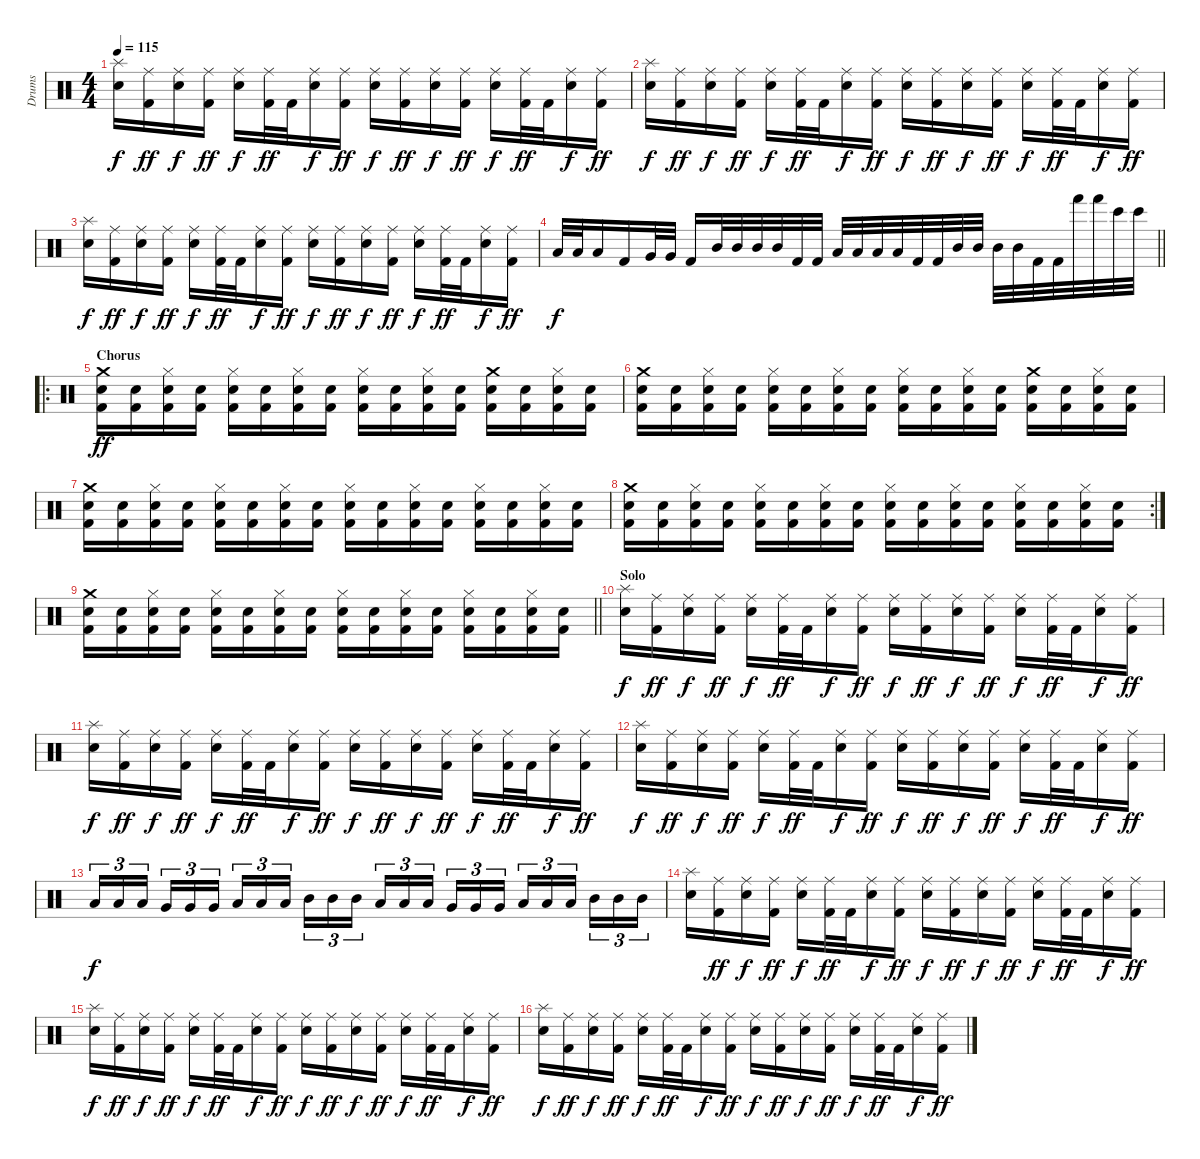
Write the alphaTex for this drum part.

\track ("Drums" "Drums") {instrument percussion}
\staff {score}
\articulation defaults
\ts (4 4)
\tempo 115
\clef neutral
\ks c
("Splash (hit)" "Electric Snare (hit)").16{dy f} ("Ride (middle)" "Kick (hit) 2").16{dy ff} ("Ride (middle)" "Electric Snare (hit)").16{dy f} ("Ride (middle)" "Kick (hit) 2").16{dy ff} ("Ride (middle)" "Electric Snare (hit)").16{dy f} ("Ride (middle)" "Kick (hit) 2").32{dy ff} "Kick (hit) 2".32 ("Ride (middle)" "Electric Snare (hit)").16{dy f} ("Ride (middle)" "Kick (hit) 2").16{dy ff} ("Ride (middle)" "Electric Snare (hit)").16{dy f} ("Ride (middle)" "Kick (hit) 2").16{dy ff} ("Ride (middle)" "Electric Snare (hit)").16{dy f} ("Ride (middle)" "Kick (hit) 2").16{dy ff} ("Ride (middle)" "Electric Snare (hit)").16{dy f} ("Ride (middle)" "Kick (hit) 2").32{dy ff} "Kick (hit) 2".32 ("Ride (middle)" "Electric Snare (hit)").16{dy f} ("Ride (middle)" "Kick (hit) 2").16{dy ff} |
("Splash (hit)" "Electric Snare (hit)").16{dy f} ("Ride (middle)" "Kick (hit) 2").16{dy ff} ("Ride (middle)" "Electric Snare (hit)").16{dy f} ("Ride (middle)" "Kick (hit) 2").16{dy ff} ("Ride (middle)" "Electric Snare (hit)").16{dy f} ("Ride (middle)" "Kick (hit) 2").32{dy ff} "Kick (hit) 2".32 ("Ride (middle)" "Electric Snare (hit)").16{dy f} ("Ride (middle)" "Kick (hit) 2").16{dy ff} ("Ride (middle)" "Electric Snare (hit)").16{dy f} ("Ride (middle)" "Kick (hit) 2").16{dy ff} ("Ride (middle)" "Electric Snare (hit)").16{dy f} ("Ride (middle)" "Kick (hit) 2").16{dy ff} ("Ride (middle)" "Electric Snare (hit)").16{dy f} ("Ride (middle)" "Kick (hit) 2").32{dy ff} "Kick (hit) 2".32 ("Ride (middle)" "Electric Snare (hit)").16{dy f} ("Ride (middle)" "Kick (hit) 2").16{dy ff} |
("Splash (hit)" "Electric Snare (hit)").16{dy f} ("Ride (middle)" "Kick (hit) 2").16{dy ff} ("Ride (middle)" "Electric Snare (hit)").16{dy f} ("Ride (middle)" "Kick (hit) 2").16{dy ff} ("Ride (middle)" "Electric Snare (hit)").16{dy f} ("Ride (middle)" "Kick (hit) 2").32{dy ff} "Kick (hit) 2".32 ("Ride (middle)" "Electric Snare (hit)").16{dy f} ("Ride (middle)" "Kick (hit) 2").16{dy ff} ("Ride (middle)" "Electric Snare (hit)").16{dy f} ("Ride (middle)" "Kick (hit) 2").16{dy ff} ("Ride (middle)" "Electric Snare (hit)").16{dy f} ("Ride (middle)" "Kick (hit) 2").16{dy ff} ("Ride (middle)" "Electric Snare (hit)").16{dy f} ("Ride (middle)" "Kick (hit) 2").32{dy ff} "Kick (hit) 2".32 ("Ride (middle)" "Electric Snare (hit)").16{dy f} ("Ride (middle)" "Kick (hit) 2").16{dy ff} |
\barLineRight lightlight "Low Floor Tom (hit)".32{dy f} "Low Floor Tom (hit)".32 "Low Floor Tom (hit)".16 "Kick (hit) 2".16 "Very Low Tom (hit)".32 "Very Low Tom (hit)".32 "Kick (hit) 2".16 "Mid Tom (hit)".32 "Mid Tom (hit)".32 "Mid Tom (hit)".32 "Mid Tom (hit)".32 "Kick (hit) 2".32 "Kick (hit) 2".32 "Low Tom (hit)".32 "Low Tom (hit)".32 "Low Tom (hit)".32 "Low Tom (hit)".32 "Kick (hit) 2".32 "Kick (hit) 2".32 "Mid Tom (hit)".32 "Mid Tom (hit)".32 "Mid Tom (hit)".32 "Mid Tom (hit)".32 "Kick (hit) 2".32 "Kick (hit) 2".32 "Hand (hit)".32 "Hand (hit)".32 "Bongo High (hit)".32 "Bongo High (hit)".32
|
\ro
\section ("" "Chorus")
("Crash medium (hit)" "Electric Snare (hit)" "Kick (hit) 2").16{dy ff} ("Electric Snare (hit)" "Kick (hit) 2").16 ("Hi-Hat (closed)" "Electric Snare (hit)" "Kick (hit) 2").16 ("Electric Snare (hit)" "Kick (hit) 2").16 ("Hi-Hat (closed)" "Electric Snare (hit)" "Kick (hit) 2").16 ("Electric Snare (hit)" "Kick (hit) 2").16 ("Hi-Hat (closed)" "Electric Snare (hit)" "Kick (hit) 2").16 ("Electric Snare (hit)" "Kick (hit) 2").16 ("Hi-Hat (closed)" "Electric Snare (hit)" "Kick (hit) 2").16 ("Electric Snare (hit)" "Kick (hit) 2").16 ("Hi-Hat (closed)" "Electric Snare (hit)" "Kick (hit) 2").16 ("Electric Snare (hit)" "Kick (hit) 2").16 ("Crash medium (hit)" "Electric Snare (hit)" "Kick (hit) 2").16 ("Electric Snare (hit)" "Kick (hit) 2").16 ("Hi-Hat (closed)" "Electric Snare (hit)" "Kick (hit) 2").16 ("Electric Snare (hit)" "Kick (hit) 2").16 |
("Crash medium (hit)" "Electric Snare (hit)" "Kick (hit) 2").16 ("Electric Snare (hit)" "Kick (hit) 2").16 ("Hi-Hat (closed)" "Electric Snare (hit)" "Kick (hit) 2").16 ("Electric Snare (hit)" "Kick (hit) 2").16 ("Hi-Hat (closed)" "Electric Snare (hit)" "Kick (hit) 2").16 ("Electric Snare (hit)" "Kick (hit) 2").16 ("Hi-Hat (closed)" "Electric Snare (hit)" "Kick (hit) 2").16 ("Electric Snare (hit)" "Kick (hit) 2").16 ("Hi-Hat (closed)" "Electric Snare (hit)" "Kick (hit) 2").16 ("Electric Snare (hit)" "Kick (hit) 2").16 ("Hi-Hat (closed)" "Electric Snare (hit)" "Kick (hit) 2").16 ("Electric Snare (hit)" "Kick (hit) 2").16 ("Crash medium (hit)" "Electric Snare (hit)" "Kick (hit) 2").16 ("Electric Snare (hit)" "Kick (hit) 2").16 ("Hi-Hat (closed)" "Electric Snare (hit)" "Kick (hit) 2").16 ("Electric Snare (hit)" "Kick (hit) 2").16 |
("Crash medium (hit)" "Electric Snare (hit)" "Kick (hit) 2").16 ("Electric Snare (hit)" "Kick (hit) 2").16 ("Hi-Hat (closed)" "Electric Snare (hit)" "Kick (hit) 2").16 ("Electric Snare (hit)" "Kick (hit) 2").16 ("Hi-Hat (closed)" "Electric Snare (hit)" "Kick (hit) 2").16 ("Electric Snare (hit)" "Kick (hit) 2").16 ("Hi-Hat (closed)" "Electric Snare (hit)" "Kick (hit) 2").16 ("Electric Snare (hit)" "Kick (hit) 2").16 ("Hi-Hat (closed)" "Electric Snare (hit)" "Kick (hit) 2").16 ("Electric Snare (hit)" "Kick (hit) 2").16 ("Hi-Hat (closed)" "Electric Snare (hit)" "Kick (hit) 2").16 ("Electric Snare (hit)" "Kick (hit) 2").16 ("Hi-Hat (closed)" "Electric Snare (hit)" "Kick (hit) 2").16 ("Electric Snare (hit)" "Kick (hit) 2").16 ("Hi-Hat (closed)" "Electric Snare (hit)" "Kick (hit) 2").16 ("Electric Snare (hit)" "Kick (hit) 2").16 |
\rc 2
("Crash medium (hit)" "Electric Snare (hit)" "Kick (hit) 2").16 ("Electric Snare (hit)" "Kick (hit) 2").16 ("Hi-Hat (closed)" "Electric Snare (hit)" "Kick (hit) 2").16 ("Electric Snare (hit)" "Kick (hit) 2").16 ("Hi-Hat (closed)" "Electric Snare (hit)" "Kick (hit) 2").16 ("Electric Snare (hit)" "Kick (hit) 2").16 ("Hi-Hat (closed)" "Electric Snare (hit)" "Kick (hit) 2").16 ("Electric Snare (hit)" "Kick (hit) 2").16 ("Hi-Hat (closed)" "Electric Snare (hit)" "Kick (hit) 2").16 ("Electric Snare (hit)" "Kick (hit) 2").16 ("Hi-Hat (closed)" "Electric Snare (hit)" "Kick (hit) 2").16 ("Electric Snare (hit)" "Kick (hit) 2").16 ("Hi-Hat (closed)" "Electric Snare (hit)" "Kick (hit) 2").16 ("Electric Snare (hit)" "Kick (hit) 2").16 ("Hi-Hat (closed)" "Electric Snare (hit)" "Kick (hit) 2").16 ("Electric Snare (hit)" "Kick (hit) 2").16 |
\barLineRight lightlight
("Crash medium (hit)" "Electric Snare (hit)" "Kick (hit) 2").16 ("Electric Snare (hit)" "Kick (hit) 2").16 ("Hi-Hat (closed)" "Electric Snare (hit)" "Kick (hit) 2").16 ("Electric Snare (hit)" "Kick (hit) 2").16 ("Hi-Hat (closed)" "Electric Snare (hit)" "Kick (hit) 2").16 ("Electric Snare (hit)" "Kick (hit) 2").16 ("Hi-Hat (closed)" "Electric Snare (hit)" "Kick (hit) 2").16 ("Electric Snare (hit)" "Kick (hit) 2").16 ("Hi-Hat (closed)" "Electric Snare (hit)" "Kick (hit) 2").16 ("Electric Snare (hit)" "Kick (hit) 2").16 ("Hi-Hat (closed)" "Electric Snare (hit)" "Kick (hit) 2").16 ("Electric Snare (hit)" "Kick (hit) 2").16 ("Hi-Hat (closed)" "Electric Snare (hit)" "Kick (hit) 2").16 ("Electric Snare (hit)" "Kick (hit) 2").16 ("Hi-Hat (closed)" "Electric Snare (hit)" "Kick (hit) 2").16 ("Electric Snare (hit)" "Kick (hit) 2").16 |
\section ("" "Solo")
("Splash (hit)" "Electric Snare (hit)").16{dy f} ("Ride (middle)" "Kick (hit) 2").16{dy ff} ("Ride (middle)" "Electric Snare (hit)").16{dy f} ("Ride (middle)" "Kick (hit) 2").16{dy ff} ("Ride (middle)" "Electric Snare (hit)").16{dy f} ("Ride (middle)" "Kick (hit) 2").32{dy ff} "Kick (hit) 2".32 ("Ride (middle)" "Electric Snare (hit)").16{dy f} ("Ride (middle)" "Kick (hit) 2").16{dy ff} ("Ride (middle)" "Electric Snare (hit)").16{dy f} ("Ride (middle)" "Kick (hit) 2").16{dy ff} ("Ride (middle)" "Electric Snare (hit)").16{dy f} ("Ride (middle)" "Kick (hit) 2").16{dy ff} ("Ride (middle)" "Electric Snare (hit)").16{dy f} ("Ride (middle)" "Kick (hit) 2").32{dy ff} "Kick (hit) 2".32 ("Ride (middle)" "Electric Snare (hit)").16{dy f} ("Ride (middle)" "Kick (hit) 2").16{dy ff} |
("Splash (hit)" "Electric Snare (hit)").16{dy f} ("Ride (middle)" "Kick (hit) 2").16{dy ff} ("Ride (middle)" "Electric Snare (hit)").16{dy f} ("Ride (middle)" "Kick (hit) 2").16{dy ff} ("Ride (middle)" "Electric Snare (hit)").16{dy f} ("Ride (middle)" "Kick (hit) 2").32{dy ff} "Kick (hit) 2".32 ("Ride (middle)" "Electric Snare (hit)").16{dy f} ("Ride (middle)" "Kick (hit) 2").16{dy ff} ("Ride (middle)" "Electric Snare (hit)").16{dy f} ("Ride (middle)" "Kick (hit) 2").16{dy ff} ("Ride (middle)" "Electric Snare (hit)").16{dy f} ("Ride (middle)" "Kick (hit) 2").16{dy ff} ("Ride (middle)" "Electric Snare (hit)").16{dy f} ("Ride (middle)" "Kick (hit) 2").32{dy ff} "Kick (hit) 2".32 ("Ride (middle)" "Electric Snare (hit)").16{dy f} ("Ride (middle)" "Kick (hit) 2").16{dy ff} |
("Splash (hit)" "Electric Snare (hit)").16{dy f} ("Ride (middle)" "Kick (hit) 2").16{dy ff} ("Ride (middle)" "Electric Snare (hit)").16{dy f} ("Ride (middle)" "Kick (hit) 2").16{dy ff} ("Ride (middle)" "Electric Snare (hit)").16{dy f} ("Ride (middle)" "Kick (hit) 2").32{dy ff} "Kick (hit) 2".32 ("Ride (middle)" "Electric Snare (hit)").16{dy f} ("Ride (middle)" "Kick (hit) 2").16{dy ff} ("Ride (middle)" "Electric Snare (hit)").16{dy f} ("Ride (middle)" "Kick (hit) 2").16{dy ff} ("Ride (middle)" "Electric Snare (hit)").16{dy f} ("Ride (middle)" "Kick (hit) 2").16{dy ff} ("Ride (middle)" "Electric Snare (hit)").16{dy f} ("Ride (middle)" "Kick (hit) 2").32{dy ff} "Kick (hit) 2".32 ("Ride (middle)" "Electric Snare (hit)").16{dy f} ("Ride (middle)" "Kick (hit) 2").16{dy ff} |
"Low Floor Tom (hit)".16{tu (3 2) dy f} "Low Floor Tom (hit)".16{tu (3 2)} "Low Floor Tom (hit)".16{tu (3 2)} "Very Low Tom (hit)".16{tu (3 2)} "Very Low Tom (hit)".16{tu (3 2)} "Very Low Tom (hit)".16{tu (3 2)} "Low Tom (hit)".16{tu (3 2)} "Low Tom (hit)".16{tu (3 2)} "Low Tom (hit)".16{tu (3 2)} "Mid Tom (hit)".16{tu (3 2)} "Mid Tom (hit)".16{tu (3 2)} "Mid Tom (hit)".16{tu (3 2)} "Low Tom (hit)".16{tu (3 2)} "Low Tom (hit)".16{tu (3 2)} "Low Tom (hit)".16{tu (3 2)} "Very Low Tom (hit)".16{tu (3 2)} "Very Low Tom (hit)".16{tu (3 2)} "Very Low Tom (hit)".16{tu (3 2)} "Low Tom (hit)".16{tu (3 2)} "Low Tom (hit)".16{tu (3 2)} "Low Tom (hit)".16{tu (3 2)} "Mid Tom (hit)".16{tu (3 2)} "Mid Tom (hit)".16{tu (3 2)} "Mid Tom (hit)".16{tu (3 2)} |
("Splash (hit)" "Electric Snare (hit)").16 ("Ride (middle)" "Kick (hit) 2").16{dy ff} ("Ride (middle)" "Electric Snare (hit)").16{dy f} ("Ride (middle)" "Kick (hit) 2").16{dy ff} ("Ride (middle)" "Electric Snare (hit)").16{dy f} ("Ride (middle)" "Kick (hit) 2").32{dy ff} "Kick (hit) 2".32 ("Ride (middle)" "Electric Snare (hit)").16{dy f} ("Ride (middle)" "Kick (hit) 2").16{dy ff} ("Ride (middle)" "Electric Snare (hit)").16{dy f} ("Ride (middle)" "Kick (hit) 2").16{dy ff} ("Ride (middle)" "Electric Snare (hit)").16{dy f} ("Ride (middle)" "Kick (hit) 2").16{dy ff} ("Ride (middle)" "Electric Snare (hit)").16{dy f} ("Ride (middle)" "Kick (hit) 2").32{dy ff} "Kick (hit) 2".32 ("Ride (middle)" "Electric Snare (hit)").16{dy f} ("Ride (middle)" "Kick (hit) 2").16{dy ff} |
("Splash (hit)" "Electric Snare (hit)").16{dy f} ("Ride (middle)" "Kick (hit) 2").16{dy ff} ("Ride (middle)" "Electric Snare (hit)").16{dy f} ("Ride (middle)" "Kick (hit) 2").16{dy ff} ("Ride (middle)" "Electric Snare (hit)").16{dy f} ("Ride (middle)" "Kick (hit) 2").32{dy ff} "Kick (hit) 2".32 ("Ride (middle)" "Electric Snare (hit)").16{dy f} ("Ride (middle)" "Kick (hit) 2").16{dy ff} ("Ride (middle)" "Electric Snare (hit)").16{dy f} ("Ride (middle)" "Kick (hit) 2").16{dy ff} ("Ride (middle)" "Electric Snare (hit)").16{dy f} ("Ride (middle)" "Kick (hit) 2").16{dy ff} ("Ride (middle)" "Electric Snare (hit)").16{dy f} ("Ride (middle)" "Kick (hit) 2").32{dy ff} "Kick (hit) 2".32 ("Ride (middle)" "Electric Snare (hit)").16{dy f} ("Ride (middle)" "Kick (hit) 2").16{dy ff} |
("Splash (hit)" "Electric Snare (hit)").16{dy f} ("Ride (middle)" "Kick (hit) 2").16{dy ff} ("Ride (middle)" "Electric Snare (hit)").16{dy f} ("Ride (middle)" "Kick (hit) 2").16{dy ff} ("Ride (middle)" "Electric Snare (hit)").16{dy f} ("Ride (middle)" "Kick (hit) 2").32{dy ff} "Kick (hit) 2".32 ("Ride (middle)" "Electric Snare (hit)").16{dy f} ("Ride (middle)" "Kick (hit) 2").16{dy ff} ("Ride (middle)" "Electric Snare (hit)").16{dy f} ("Ride (middle)" "Kick (hit) 2").16{dy ff} ("Ride (middle)" "Electric Snare (hit)").16{dy f} ("Ride (middle)" "Kick (hit) 2").16{dy ff} ("Ride (middle)" "Electric Snare (hit)").16{dy f} ("Ride (middle)" "Kick (hit) 2").32{dy ff} "Kick (hit) 2".32 ("Ride (middle)" "Electric Snare (hit)").16{dy f} ("Ride (middle)" "Kick (hit) 2").16{dy ff}
